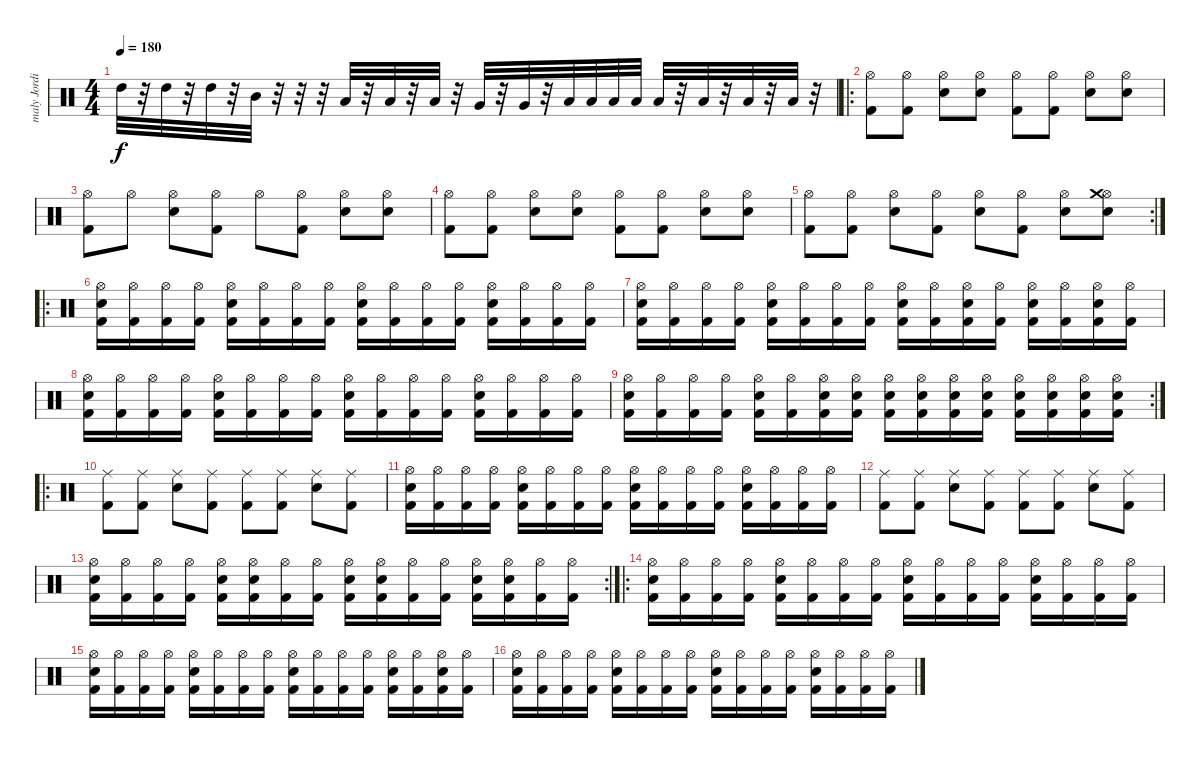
\track ("maly Jordison " "maly Jordi") {instrument percussion}
\staff {score}
\articulation defaults
\ts (4 4)
\tempo 180
\clef neutral
\ks c "High Tom (hit)".32{dy f}
r.32 "High Tom (hit)".32 r.32 "High Tom (hit)".32 r.32 "Mid Tom (hit)".32 r.32 r.32 r.32 "Low Tom (hit)".32 r.32 "Low Tom (hit)".32 r.32 "Low Tom (hit)".32 r.32 "Very Low Tom (hit)".32 r.32 "Very Low Tom (hit)".32 r.32 "Low Floor Tom (hit)".32 "Low Floor Tom (hit)".32 "Low Floor Tom (hit)".32 "Low Floor Tom (hit)".32 "Low Floor Tom (hit)".32 r.32 "Low Floor Tom (hit)".32 r.32 "Low Floor Tom (hit)".32 r.32 "Low Floor Tom (hit)".32 r.32 |
\ro
("Hi-Hat (open)" "Kick (hit) 2").8 ("Hi-Hat (open)" "Kick (hit) 2").8 ("Hi-Hat (open)" "Electric Snare (hit)").8 ("Hi-Hat (open)" "Electric Snare (hit)").8 ("Hi-Hat (open)" "Kick (hit) 2").8 ("Hi-Hat (open)" "Kick (hit) 2").8 ("Hi-Hat (open)" "Electric Snare (hit)").8 ("Hi-Hat (open)" "Electric Snare (hit)").8 |
("Hi-Hat (open)" "Kick (hit) 2").8 "Hi-Hat (open)".8 ("Hi-Hat (open)" "Electric Snare (hit)").8 ("Hi-Hat (open)" "Kick (hit) 2").8 "Hi-Hat (open)".8 ("Hi-Hat (open)" "Kick (hit) 2").8 ("Hi-Hat (open)" "Electric Snare (hit)").8 ("Hi-Hat (open)" "Electric Snare (hit)").8 |
("Hi-Hat (open)" "Kick (hit) 2").8 ("Hi-Hat (open)" "Kick (hit) 2").8 ("Hi-Hat (open)" "Electric Snare (hit)").8 ("Hi-Hat (open)" "Electric Snare (hit)").8 ("Hi-Hat (open)" "Kick (hit) 2").8 ("Hi-Hat (open)" "Kick (hit) 2").8 ("Hi-Hat (open)" "Electric Snare (hit)").8 ("Hi-Hat (open)" "Electric Snare (hit)").8 |
\rc 2
("Hi-Hat (open)" "Kick (hit) 2").8 ("Hi-Hat (open)" "Kick (hit) 2").8 ("Hi-Hat (open)" "Electric Snare (hit)").8 ("Hi-Hat (open)" "Kick (hit) 2").8 ("Hi-Hat (open)" "Electric Snare (hit)").8 ("Hi-Hat (open)" "Kick (hit) 2").8 ("Hi-Hat (open)" "Electric Snare (hit)").8 ("Hi-Hat (open)" "Crash medium (hit)" "Electric Snare (hit)").8 |
\ro
("Hi-Hat (open)" "Electric Snare (hit)" "Kick (hit) 2").16 ("Hi-Hat (open)" "Kick (hit) 2").16 ("Hi-Hat (open)" "Kick (hit) 2").16 ("Hi-Hat (open)" "Kick (hit) 2").16 ("Hi-Hat (open)" "Electric Snare (hit)" "Kick (hit) 2").16 ("Hi-Hat (open)" "Kick (hit) 2").16 ("Hi-Hat (open)" "Kick (hit) 2").16 ("Hi-Hat (open)" "Kick (hit) 2").16 ("Hi-Hat (open)" "Electric Snare (hit)" "Kick (hit) 2").16 ("Hi-Hat (open)" "Kick (hit) 2").16 ("Hi-Hat (open)" "Kick (hit) 2").16 ("Hi-Hat (open)" "Kick (hit) 2").16 ("Hi-Hat (open)" "Electric Snare (hit)" "Kick (hit) 2").16 ("Hi-Hat (open)" "Kick (hit) 2").16 ("Hi-Hat (open)" "Kick (hit) 2").16 ("Hi-Hat (open)" "Kick (hit) 2").16 |
("Hi-Hat (open)" "Electric Snare (hit)" "Kick (hit) 2").16 ("Hi-Hat (open)" "Kick (hit) 2").16 ("Hi-Hat (open)" "Kick (hit) 2").16 ("Hi-Hat (open)" "Kick (hit) 2").16 ("Hi-Hat (open)" "Electric Snare (hit)" "Kick (hit) 2").16 ("Hi-Hat (open)" "Kick (hit) 2").16 ("Hi-Hat (open)" "Kick (hit) 2").16 ("Hi-Hat (open)" "Kick (hit) 2").16 ("Hi-Hat (open)" "Electric Snare (hit)" "Kick (hit) 2").16 ("Hi-Hat (open)" "Kick (hit) 2").16 ("Hi-Hat (open)" "Electric Snare (hit)" "Kick (hit) 2").16 ("Hi-Hat (open)" "Kick (hit) 2").16 ("Hi-Hat (open)" "Electric Snare (hit)" "Kick (hit) 2").16 ("Hi-Hat (open)" "Kick (hit) 2").16 ("Hi-Hat (open)" "Electric Snare (hit)" "Kick (hit) 2").16 ("Hi-Hat (open)" "Kick (hit) 2").16 |
("Hi-Hat (open)" "Electric Snare (hit)" "Kick (hit) 2").16 ("Hi-Hat (open)" "Kick (hit) 2").16 ("Hi-Hat (open)" "Kick (hit) 2").16 ("Hi-Hat (open)" "Kick (hit) 2").16 ("Hi-Hat (open)" "Electric Snare (hit)" "Kick (hit) 2").16 ("Hi-Hat (open)" "Kick (hit) 2").16 ("Hi-Hat (open)" "Kick (hit) 2").16 ("Hi-Hat (open)" "Kick (hit) 2").16 ("Hi-Hat (open)" "Electric Snare (hit)" "Kick (hit) 2").16 ("Hi-Hat (open)" "Kick (hit) 2").16 ("Hi-Hat (open)" "Kick (hit) 2").16 ("Hi-Hat (open)" "Kick (hit) 2").16 ("Hi-Hat (open)" "Electric Snare (hit)" "Kick (hit) 2").16 ("Hi-Hat (open)" "Kick (hit) 2").16 ("Hi-Hat (open)" "Kick (hit) 2").16 ("Hi-Hat (open)" "Kick (hit) 2").16 |
\rc 2
("Hi-Hat (open)" "Electric Snare (hit)" "Kick (hit) 2").16 ("Hi-Hat (open)" "Kick (hit) 2").16 ("Hi-Hat (open)" "Kick (hit) 2").16 ("Hi-Hat (open)" "Kick (hit) 2").16 ("Hi-Hat (open)" "Electric Snare (hit)" "Kick (hit) 2").16 ("Hi-Hat (open)" "Kick (hit) 2").16 ("Hi-Hat (open)" "Electric Snare (hit)" "Kick (hit) 2").16 ("Hi-Hat (open)" "Electric Snare (hit)" "Kick (hit) 2").16 ("Hi-Hat (open)" "Electric Snare (hit)" "Kick (hit) 2").16 ("Hi-Hat (open)" "Electric Snare (hit)" "Kick (hit) 2").16 ("Hi-Hat (open)" "Electric Snare (hit)" "Kick (hit) 2").16 ("Hi-Hat (open)" "Electric Snare (hit)" "Kick (hit) 2").16 ("Hi-Hat (open)" "Electric Snare (hit)" "Kick (hit) 2").16 ("Hi-Hat (open)" "Electric Snare (hit)" "Kick (hit) 2").16 ("Hi-Hat (open)" "Electric Snare (hit)" "Kick (hit) 2").16 ("Hi-Hat (open)" "Electric Snare (hit)" "Kick (hit) 2").16 |
\ro
("Ride (middle)" "Kick (hit) 2").8 ("Ride (middle)" "Kick (hit) 2").8 ("Ride (middle)" "Electric Snare (hit)").8 ("Ride (middle)" "Kick (hit) 2").8 ("Ride (middle)" "Kick (hit) 2").8 ("Ride (middle)" "Kick (hit) 2").8 ("Ride (middle)" "Electric Snare (hit)").8 ("Ride (middle)" "Kick (hit) 2").8 |
("Hi-Hat (open)" "Electric Snare (hit)" "Kick (hit) 2").16 ("Hi-Hat (open)" "Kick (hit) 2").16 ("Hi-Hat (open)" "Kick (hit) 2").16 ("Hi-Hat (open)" "Kick (hit) 2").16 ("Hi-Hat (open)" "Electric Snare (hit)" "Kick (hit) 2").16 ("Hi-Hat (open)" "Kick (hit) 2").16 ("Hi-Hat (open)" "Kick (hit) 2").16 ("Hi-Hat (open)" "Kick (hit) 2").16 ("Hi-Hat (open)" "Electric Snare (hit)" "Kick (hit) 2").16 ("Hi-Hat (open)" "Kick (hit) 2").16 ("Hi-Hat (open)" "Kick (hit) 2").16 ("Hi-Hat (open)" "Kick (hit) 2").16 ("Hi-Hat (open)" "Electric Snare (hit)" "Kick (hit) 2").16 ("Hi-Hat (open)" "Kick (hit) 2").16 ("Hi-Hat (open)" "Kick (hit) 2").16 ("Hi-Hat (open)" "Kick (hit) 2").16 |
("Ride (middle)" "Kick (hit) 2").8 ("Ride (middle)" "Kick (hit) 2").8 ("Ride (middle)" "Electric Snare (hit)").8 ("Ride (middle)" "Kick (hit) 2").8 ("Ride (middle)" "Kick (hit) 2").8 ("Ride (middle)" "Kick (hit) 2").8 ("Ride (middle)" "Electric Snare (hit)").8 ("Ride (middle)" "Kick (hit) 2").8 |
\rc 2
("Hi-Hat (open)" "Electric Snare (hit)" "Kick (hit) 2").16 ("Hi-Hat (open)" "Kick (hit) 2").16 ("Hi-Hat (open)" "Kick (hit) 2").16 ("Hi-Hat (open)" "Kick (hit) 2").16 ("Hi-Hat (open)" "Electric Snare (hit)" "Kick (hit) 2").16 ("Hi-Hat (open)" "Electric Snare (hit)" "Kick (hit) 2").16 ("Hi-Hat (open)" "Kick (hit) 2").16 ("Hi-Hat (open)" "Kick (hit) 2").16 ("Hi-Hat (open)" "Electric Snare (hit)" "Kick (hit) 2").16 ("Hi-Hat (open)" "Electric Snare (hit)" "Kick (hit) 2").16 ("Hi-Hat (open)" "Kick (hit) 2").16 ("Hi-Hat (open)" "Kick (hit) 2").16 ("Hi-Hat (open)" "Electric Snare (hit)" "Kick (hit) 2").16 ("Hi-Hat (open)" "Electric Snare (hit)" "Kick (hit) 2").16 ("Hi-Hat (open)" "Kick (hit) 2").16 ("Hi-Hat (open)" "Kick (hit) 2").16 |
\ro
("Hi-Hat (open)" "Electric Snare (hit)" "Kick (hit) 2").16 ("Hi-Hat (open)" "Kick (hit) 2").16 ("Hi-Hat (open)" "Kick (hit) 2").16 ("Hi-Hat (open)" "Kick (hit) 2").16 ("Hi-Hat (open)" "Electric Snare (hit)" "Kick (hit) 2").16 ("Hi-Hat (open)" "Kick (hit) 2").16 ("Hi-Hat (open)" "Kick (hit) 2").16 ("Hi-Hat (open)" "Kick (hit) 2").16 ("Hi-Hat (open)" "Electric Snare (hit)" "Kick (hit) 2").16 ("Hi-Hat (open)" "Kick (hit) 2").16 ("Hi-Hat (open)" "Kick (hit) 2").16 ("Hi-Hat (open)" "Kick (hit) 2").16 ("Hi-Hat (open)" "Electric Snare (hit)" "Kick (hit) 2").16 ("Hi-Hat (open)" "Kick (hit) 2").16 ("Hi-Hat (open)" "Kick (hit) 2").16 ("Hi-Hat (open)" "Kick (hit) 2").16 |
("Hi-Hat (open)" "Electric Snare (hit)" "Kick (hit) 2").16 ("Hi-Hat (open)" "Kick (hit) 2").16 ("Hi-Hat (open)" "Kick (hit) 2").16 ("Hi-Hat (open)" "Kick (hit) 2").16 ("Hi-Hat (open)" "Electric Snare (hit)" "Kick (hit) 2").16 ("Hi-Hat (open)" "Kick (hit) 2").16 ("Hi-Hat (open)" "Kick (hit) 2").16 ("Hi-Hat (open)" "Kick (hit) 2").16 ("Hi-Hat (open)" "Electric Snare (hit)" "Kick (hit) 2").16 ("Hi-Hat (open)" "Kick (hit) 2").16 ("Hi-Hat (open)" "Kick (hit) 2").16 ("Hi-Hat (open)" "Kick (hit) 2").16 ("Hi-Hat (open)" "Electric Snare (hit)" "Kick (hit) 2").16 ("Hi-Hat (open)" "Kick (hit) 2").16 ("Hi-Hat (open)" "Electric Snare (hit)" "Kick (hit) 2").16 ("Hi-Hat (open)" "Kick (hit) 2").16 |
("Hi-Hat (open)" "Electric Snare (hit)" "Kick (hit) 2").16 ("Hi-Hat (open)" "Kick (hit) 2").16 ("Hi-Hat (open)" "Kick (hit) 2").16 ("Hi-Hat (open)" "Kick (hit) 2").16 ("Hi-Hat (open)" "Electric Snare (hit)" "Kick (hit) 2").16 ("Hi-Hat (open)" "Kick (hit) 2").16 ("Hi-Hat (open)" "Kick (hit) 2").16 ("Hi-Hat (open)" "Kick (hit) 2").16 ("Hi-Hat (open)" "Electric Snare (hit)" "Kick (hit) 2").16 ("Hi-Hat (open)" "Kick (hit) 2").16 ("Hi-Hat (open)" "Kick (hit) 2").16 ("Hi-Hat (open)" "Kick (hit) 2").16 ("Hi-Hat (open)" "Electric Snare (hit)" "Kick (hit) 2").16 ("Hi-Hat (open)" "Kick (hit) 2").16 ("Hi-Hat (open)" "Kick (hit) 2").16 ("Hi-Hat (open)" "Kick (hit) 2").16
